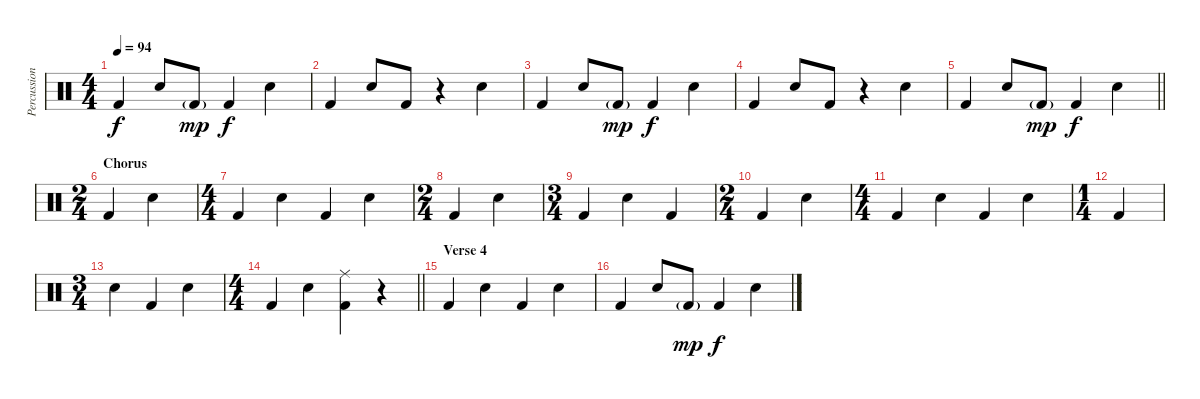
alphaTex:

\track ("Percussion" "Percussion") {instrument percussion}
\staff {score}
\articulation defaults
\ts (4 4)
\tempo 94
\clef neutral
\ks c "Kick (hit) 2".4{dy f} "Snare (hit) 2".8 "Kick (hit) 2"{g}.8{dy mp} "Kick (hit) 2".4{dy f} "Snare (hit) 2".4
|
"Kick (hit) 2".4 "Snare (hit) 2".8 "Kick (hit) 2".8 r.4 "Snare (hit) 2".4 |
"Kick (hit) 2".4 "Snare (hit) 2".8 "Kick (hit) 2"{g}.8{dy mp} "Kick (hit) 2".4{dy f} "Snare (hit) 2".4 |
"Kick (hit) 2".4 "Snare (hit) 2".8 "Kick (hit) 2".8 r.4 "Snare (hit) 2".4 |
\barLineRight lightlight "Kick (hit) 2".4 "Snare (hit) 2".8 "Kick (hit) 2"{g}.8{dy mp} "Kick (hit) 2".4{dy f} "Snare (hit) 2".4
|
\ts (2 4)
\section ("" "Chorus")
"Kick (hit) 2".4 "Snare (hit) 2".4 |
\ts (4 4)
"Kick (hit) 2".4 "Snare (hit) 2".4 "Kick (hit) 2".4 "Snare (hit) 2".4 |
\ts (2 4)
"Kick (hit) 2".4 "Snare (hit) 2".4 |
\ts (3 4)
"Kick (hit) 2".4 "Snare (hit) 2".4 "Kick (hit) 2".4 |
\ts (2 4)
"Kick (hit) 2".4 "Snare (hit) 2".4 |
\ts (4 4)
"Kick (hit) 2".4 "Snare (hit) 2".4 "Kick (hit) 2".4 "Snare (hit) 2".4 |
\ts (1 4)
"Kick (hit) 2".4 |
\ts (3 4)
"Snare (hit) 2".4 "Kick (hit) 2".4 "Snare (hit) 2".4 |
\ts (4 4)
\barLineRight lightlight "Kick (hit) 2".4 "Snare (hit) 2".4
("Ride (middle)" "Kick (hit) 2").4 r.4 |
\section ("" "Verse 4")
"Kick (hit) 2".4 "Snare (hit) 2".4 "Kick (hit) 2".4 "Snare (hit) 2".4 |
"Kick (hit) 2".4 "Snare (hit) 2".8 "Kick (hit) 2"{g}.8{dy mp} "Kick (hit) 2".4{dy f} "Snare (hit) 2".4
